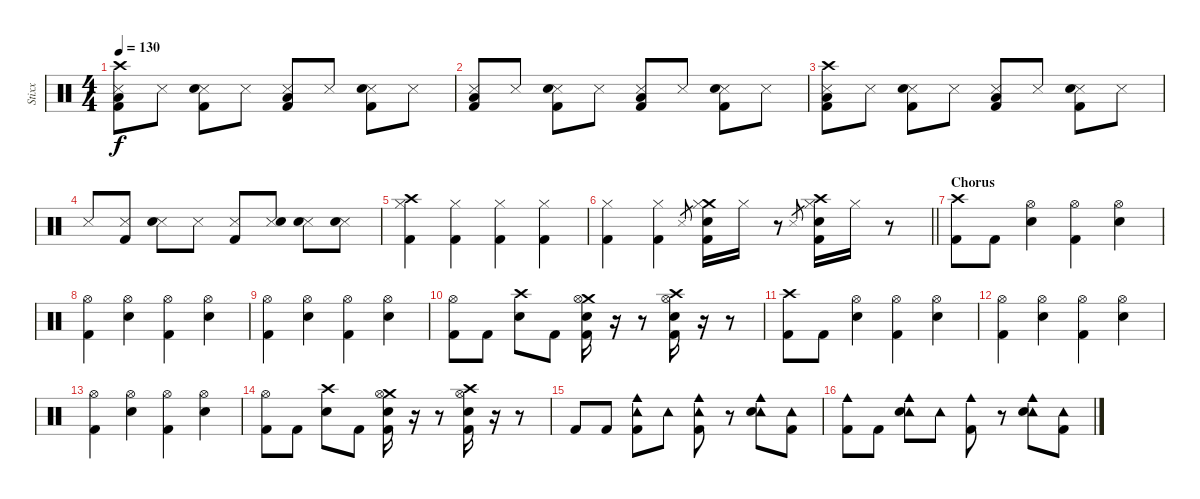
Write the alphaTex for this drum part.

\track ("Stixx" "Stixx") {instrument percussion}
\staff {score}
\articulation defaults
\ts (4 4)
\tempo 130
\clef neutral
\ks c
("Crash high (hit)" "Snare (side stick) 3" "Low Floor Tom (hit)" "Kick (hit) 2").8{dy f} "Snare (side stick) 3".8 ("Snare (side stick) 3" "Snare (hit) 2" "Kick (hit) 2").8 "Snare (side stick) 3".8 ("Snare (side stick) 3" "Low Floor Tom (hit)" "Kick (hit) 2").8 "Snare (side stick) 3".8 ("Snare (side stick) 3" "Snare (hit) 2" "Kick (hit) 2").8 "Snare (side stick) 3".8 |
("Snare (side stick) 3" "Low Floor Tom (hit)" "Kick (hit) 2").8 "Snare (side stick) 3".8 ("Snare (side stick) 3" "Snare (hit) 2" "Kick (hit) 2").8 "Snare (side stick) 3".8 ("Snare (side stick) 3" "Low Floor Tom (hit)" "Kick (hit) 2").8 "Snare (side stick) 3".8 ("Snare (side stick) 3" "Snare (hit) 2" "Kick (hit) 2").8 "Snare (side stick) 3".8 |
("Crash high (hit)" "Snare (side stick) 3" "Low Floor Tom (hit)" "Kick (hit) 2").8 "Snare (side stick) 3".8 ("Snare (side stick) 3" "Snare (hit) 2" "Kick (hit) 2").8 "Snare (side stick) 3".8 ("Snare (side stick) 3" "Low Floor Tom (hit)" "Kick (hit) 2").8 "Snare (side stick) 3".8 ("Snare (side stick) 3" "Snare (hit) 2" "Kick (hit) 2").8 "Snare (side stick) 3".8 |
"Snare (side stick) 3".8 ("Snare (side stick) 3" "Kick (hit) 2").8 ("Snare (side stick) 3" "Snare (hit) 2").8 "Snare (side stick) 3".8 ("Snare (side stick) 3" "Kick (hit) 2").8 ("Snare (side stick) 3" "Snare (hit) 2").8 ("Snare (side stick) 3" "Snare (hit) 2").8 ("Snare (side stick) 3" "Snare (hit) 2").8 |
("Crash high (hit)" "Hi-Hat (closed)" "Kick (hit) 2").4 ("Hi-Hat (closed)" "Kick (hit) 2").4 ("Hi-Hat (closed)" "Kick (hit) 2").4 ("Hi-Hat (closed)" "Kick (hit) 2").4 |
\barLineRight lightlight
("Hi-Hat (closed)" "Kick (hit) 2").4 ("Hi-Hat (closed)" "Kick (hit) 2").4 "Snare (side stick) 3".8{gr} ("Crash medium (hit)" "Snare (hit) 2" "Hi-Hat (closed)" "Kick (hit) 2").16 "Hi-Hat (closed)".16 r.8 "Snare (side stick) 3".8{gr} ("Crash high (hit)" "Snare (hit) 2" "Hi-Hat (closed)" "Kick (hit) 2").16 "Hi-Hat (closed)".16 r.8 |
\section ("" "Chorus")
("Crash high (hit)" "Kick (hit) 2").8 "Kick (hit) 2".8 ("Hi-Hat (open)" "Snare (hit) 2").4 ("Hi-Hat (open)" "Kick (hit) 2").4 ("Hi-Hat (open)" "Snare (hit) 2").4 |
("Hi-Hat (open)" "Kick (hit) 2").4 ("Hi-Hat (open)" "Snare (hit) 2").4 ("Hi-Hat (open)" "Kick (hit) 2").4 ("Hi-Hat (open)" "Snare (hit) 2").4 |
("Hi-Hat (open)" "Kick (hit) 2").4 ("Hi-Hat (open)" "Snare (hit) 2").4 ("Hi-Hat (open)" "Kick (hit) 2").4 ("Hi-Hat (open)" "Snare (hit) 2").4 |
("Hi-Hat (open)" "Kick (hit) 2").8 "Kick (hit) 2".8 ("Crash high (hit)" "Snare (hit) 2").8 "Kick (hit) 2".8 ("Crash medium (hit)" "Snare (hit) 2" "Hi-Hat (open)" "Kick (hit) 2").16 r.16 r.8 ("Crash high (hit)" "Snare (hit) 2" "Hi-Hat (open)" "Kick (hit) 2").16 r.16 r.8 |
("Crash high (hit)" "Kick (hit) 2").8 "Kick (hit) 2".8 ("Hi-Hat (open)" "Snare (hit) 2").4 ("Hi-Hat (open)" "Kick (hit) 2").4 ("Hi-Hat (open)" "Snare (hit) 2").4 |
("Hi-Hat (open)" "Kick (hit) 2").4 ("Hi-Hat (open)" "Snare (hit) 2").4 ("Hi-Hat (open)" "Kick (hit) 2").4 ("Hi-Hat (open)" "Snare (hit) 2").4 |
("Hi-Hat (open)" "Kick (hit) 2").4 ("Hi-Hat (open)" "Snare (hit) 2").4 ("Hi-Hat (open)" "Kick (hit) 2").4 ("Hi-Hat (open)" "Snare (hit) 2").4 |
("Hi-Hat (open)" "Kick (hit) 2").8 "Kick (hit) 2".8 ("Crash high (hit)" "Snare (hit) 2").8 "Kick (hit) 2".8 ("Crash medium (hit)" "Snare (hit) 2" "Hi-Hat (open)" "Kick (hit) 2").16 r.16 r.8 ("Crash high (hit)" "Snare (hit) 2" "Hi-Hat (open)" "Kick (hit) 2").16 r.16 r.8 |
"Kick (hit) 2".8 "Kick (hit) 2".8 ("Tambourine (hit)" "Cowbell medium (hit)" "Kick (hit) 2").8 "Tambourine (hit)".8 ("Tambourine (hit)" "Cowbell medium (hit)" "Kick (hit) 2").8 r.8 ("Tambourine (hit)" "Cowbell medium (hit)" "Snare (hit) 2").8 ("Tambourine (hit)" "Kick (hit) 2").8 |
("Cowbell medium (hit)" "Kick (hit) 2").8 "Kick (hit) 2".8 ("Tambourine (hit)" "Cowbell medium (hit)" "Snare (hit) 2").8 "Tambourine (hit)".8 ("Cowbell medium (hit)" "Kick (hit) 2").8 r.8 ("Tambourine (hit)" "Cowbell medium (hit)" "Snare (hit) 2").8 ("Tambourine (hit)" "Kick (hit) 2").8
